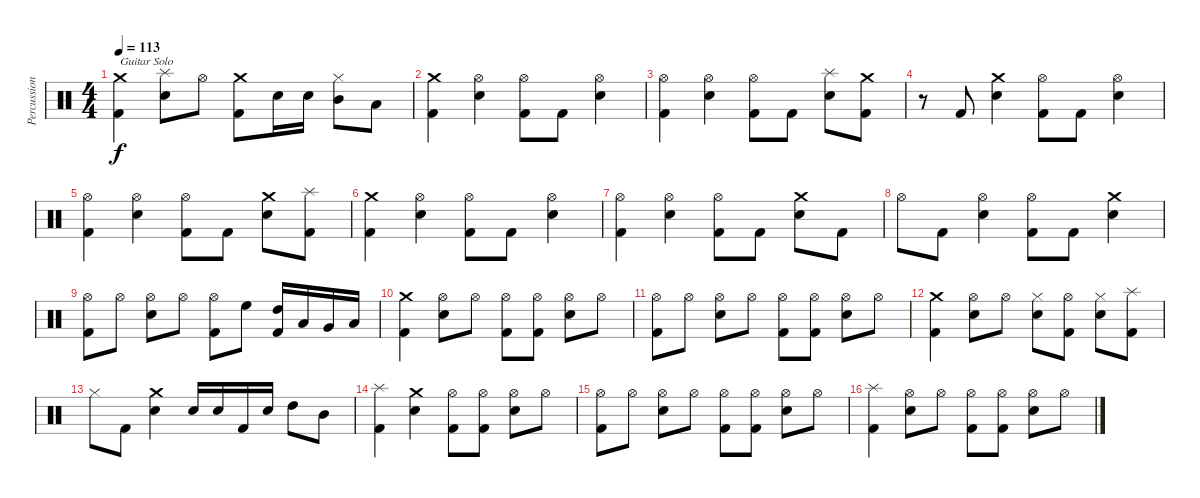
\track ("Percussion" "Percussion") {instrument percussion}
\staff {score}
\articulation defaults
\ts (4 4)
\tempo 113
\clef neutral
\ks c
("Crash medium (hit)" "Kick (hit) 2").4{txt "Guitar Solo" dy f} ("Splash (hit)" "Snare (hit) 2").8 "Hi-Hat (open)".8 ("Crash medium (hit)" "Kick (hit) 2").8 "Snare (hit) 2".16 "Snare (hit) 2".16 ("Hi-Hat (closed)" "Mid Tom (hit)").8 "Low Tom (hit)".8 |
("Crash medium (hit)" "Kick (hit) 2").4 ("Hi-Hat (open)" "Snare (hit) 2").4 ("Hi-Hat (open)" "Kick (hit) 2").8 "Kick (hit) 2".8 ("Hi-Hat (open)" "Snare (hit) 2").4 |
("Hi-Hat (open)" "Kick (hit) 2").4 ("Hi-Hat (open)" "Snare (hit) 2").4 ("Hi-Hat (open)" "Kick (hit) 2").8 "Kick (hit) 2".8 ("Splash (hit)" "Snare (hit) 2").8 ("Crash medium (hit)" "Kick (hit) 2").8 |
r.8 "Kick (hit) 2".8 ("Crash medium (hit)" "Snare (hit) 2").4 ("Hi-Hat (open)" "Kick (hit) 2").8 "Kick (hit) 2".8 ("Hi-Hat (open)" "Snare (hit) 2").4 |
("Hi-Hat (open)" "Kick (hit) 2").4 ("Hi-Hat (open)" "Snare (hit) 2").4 ("Hi-Hat (open)" "Kick (hit) 2").8 "Kick (hit) 2".8 ("Crash medium (hit)" "Snare (hit) 2").8 ("Splash (hit)" "Kick (hit) 2").8 |
("Crash medium (hit)" "Kick (hit) 2").4 ("Hi-Hat (open)" "Snare (hit) 2").4 ("Hi-Hat (open)" "Kick (hit) 2").8 "Kick (hit) 2".8 ("Hi-Hat (open)" "Snare (hit) 2").4 |
("Hi-Hat (open)" "Kick (hit) 2").4 ("Hi-Hat (open)" "Snare (hit) 2").4 ("Hi-Hat (open)" "Kick (hit) 2").8 "Kick (hit) 2".8 ("Crash medium (hit)" "Snare (hit) 2").8 "Kick (hit) 2".8 |
"Hi-Hat (open)".8 "Kick (hit) 2".8 ("Hi-Hat (open)" "Snare (hit) 2").4 ("Hi-Hat (open)" "Kick (hit) 2").8 "Kick (hit) 2".8 ("Crash medium (hit)" "Snare (hit) 2").4 |
("Hi-Hat (open)" "Kick (hit) 2").8 "Hi-Hat (open)".8 ("Hi-Hat (open)" "Snare (hit) 2").8 "Hi-Hat (open)".8 ("Hi-Hat (open)" "Kick (hit) 2").8 "High Floor Tom (hit)".8 ("High Tom (hit)" "Kick (hit) 2").16 "Low Tom (hit)".16 "Very Low Tom (hit)".16 "Low Floor Tom (hit)".16 |
("Crash medium (hit)" "Kick (hit) 2").4 ("Hi-Hat (open)" "Snare (hit) 2").8 "Hi-Hat (open)".8 ("Hi-Hat (open)" "Kick (hit) 2").8 ("Hi-Hat (open)" "Kick (hit) 2").8 ("Hi-Hat (open)" "Snare (hit) 2").8 "Hi-Hat (open)".8 |
("Hi-Hat (open)" "Kick (hit) 2").8 "Hi-Hat (open)".8 ("Hi-Hat (open)" "Snare (hit) 2").8 "Hi-Hat (open)".8 ("Hi-Hat (open)" "Kick (hit) 2").8 ("Hi-Hat (open)" "Kick (hit) 2").8 ("Hi-Hat (open)" "Snare (hit) 2").8 "Hi-Hat (open)".8 |
("Crash medium (hit)" "Kick (hit) 2").4 ("Hi-Hat (open)" "Snare (hit) 2").8 "Hi-Hat (open)".8 ("Hi-Hat (closed)" "Snare (hit) 2").8 ("Hi-Hat (open)" "Kick (hit) 2").8 ("Hi-Hat (closed)" "Snare (hit) 2").8 ("Splash (hit)" "Kick (hit) 2").8 |
"Hi-Hat (closed)".8 "Kick (hit) 2".8 ("Crash medium (hit)" "Snare (hit) 2").4 "Snare (hit) 2".16 "Snare (hit) 2".16 "Kick (hit) 2".16 "Snare (hit) 2".16 "High Tom (hit)".8 "Mid Tom (hit)".8 |
("Splash (hit)" "Kick (hit) 2").4 ("Crash medium (hit)" "Snare (hit) 2").4 ("Hi-Hat (open)" "Kick (hit) 2").8 ("Hi-Hat (open)" "Kick (hit) 2").8 ("Hi-Hat (open)" "Snare (hit) 2").8 "Hi-Hat (open)".8 |
("Hi-Hat (open)" "Kick (hit) 2").8 "Hi-Hat (open)".8 ("Hi-Hat (open)" "Snare (hit) 2").8 "Hi-Hat (open)".8 ("Hi-Hat (open)" "Kick (hit) 2").8 ("Hi-Hat (open)" "Kick (hit) 2").8 ("Hi-Hat (open)" "Snare (hit) 2").8 "Hi-Hat (open)".8 |
("Splash (hit)" "Kick (hit) 2").4 ("Hi-Hat (open)" "Snare (hit) 2").8 "Hi-Hat (open)".8 ("Hi-Hat (open)" "Kick (hit) 2").8 ("Hi-Hat (open)" "Kick (hit) 2").8 ("Hi-Hat (open)" "Snare (hit) 2").8 "Hi-Hat (open)".8
